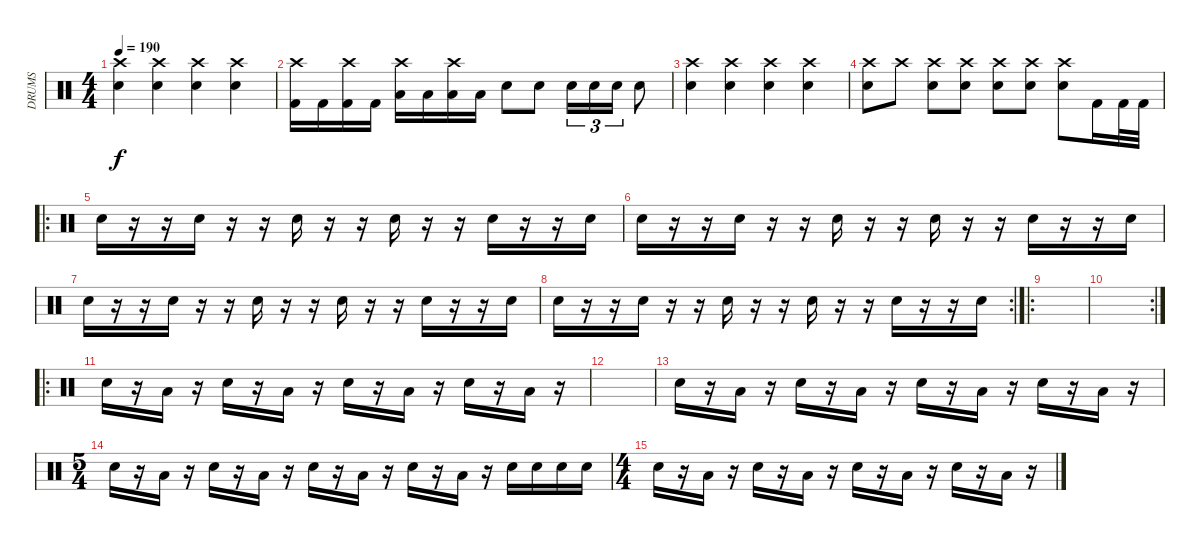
\track ("DRUMS" "DRUMS") {instrument percussion}
\staff {score}
\articulation defaults
\ts (4 4)
\tempo 190
\clef neutral
\ks c
("Crash high (hit)" "Electric Snare (hit)").4{dy f} ("Crash high (hit)" "Snare (hit) 2").4 ("Crash high (hit)" "Electric Snare (hit)").4 ("Crash high (hit)" "Snare (hit) 2").4 |
("Crash high (hit)" "Kick (hit) 2").16 "Kick (hit) 2".16 ("Crash high (hit)" "Kick (hit) 2").16 "Kick (hit) 2".16 ("Crash high (hit)" "Low Tom (hit)").16 "Low Tom (hit)".16 ("Crash high (hit)" "Low Tom (hit)").16 "Low Tom (hit)".16 "Electric Snare (hit)".8 "Electric Snare (hit)".8 "Electric Snare (hit)".16{tu (3 2)} "Electric Snare (hit)".16{tu (3 2)} "Electric Snare (hit)".16{tu (3 2)} "Snare (hit) 2".8 |
("Crash high (hit)" "Electric Snare (hit)").4 ("Crash high (hit)" "Snare (hit) 2").4 ("Crash high (hit)" "Electric Snare (hit)").4 ("Crash high (hit)" "Snare (hit) 2").4 |
("Crash high (hit)" "Electric Snare (hit)").8 "Crash high (hit)".8 ("Crash high (hit)" "Electric Snare (hit)").8 ("Crash high (hit)" "Electric Snare (hit)").8 ("Crash high (hit)" "Electric Snare (hit)").8 ("Crash high (hit)" "Electric Snare (hit)").8 ("Crash high (hit)" "Electric Snare (hit)").8 "Kick (hit) 2".16 "Kick (hit) 2".32 "Kick (hit) 2".32 |
\ro "Electric Snare (hit)".16
r.16 r.16 "Electric Snare (hit)".16 r.16 r.16 "Electric Snare (hit)".16 r.16 r.16 "Electric Snare (hit)".16 r.16 r.16 "Electric Snare (hit)".16 r.16 r.16 "Electric Snare (hit)".16 |
"Electric Snare (hit)".16 r.16 r.16 "Electric Snare (hit)".16 r.16 r.16 "Electric Snare (hit)".16 r.16 r.16 "Electric Snare (hit)".16 r.16 r.16 "Electric Snare (hit)".16 r.16 r.16 "Electric Snare (hit)".16 |
"Electric Snare (hit)".16 r.16 r.16 "Electric Snare (hit)".16 r.16 r.16 "Electric Snare (hit)".16 r.16 r.16 "Electric Snare (hit)".16 r.16 r.16 "Electric Snare (hit)".16 r.16 r.16 "Electric Snare (hit)".16 |
\rc 2 "Electric Snare (hit)".16
r.16 r.16 "Electric Snare (hit)".16 r.16 r.16 "Electric Snare (hit)".16 r.16 r.16 "Electric Snare (hit)".16 r.16 r.16 "Electric Snare (hit)".16 r.16 r.16 "Electric Snare (hit)".16 |
\ro
|
\rc 2
|
\ro "Electric Snare (hit)".16
r.16 "Low Tom (hit)".16 r.16 "Electric Snare (hit)".16 r.16 "Low Tom (hit)".16 r.16 "Electric Snare (hit)".16 r.16 "Low Tom (hit)".16 r.16 "Electric Snare (hit)".16 r.16 "Low Tom (hit)".16 r.16 |
|
"Electric Snare (hit)".16 r.16 "Low Tom (hit)".16 r.16 "Electric Snare (hit)".16 r.16 "Low Tom (hit)".16 r.16 "Electric Snare (hit)".16 r.16 "Low Tom (hit)".16 r.16 "Electric Snare (hit)".16 r.16 "Low Tom (hit)".16 r.16 |
\ts (5 4)
"Electric Snare (hit)".16 r.16 "Low Tom (hit)".16 r.16 "Electric Snare (hit)".16 r.16 "Low Tom (hit)".16 r.16 "Electric Snare (hit)".16 r.16 "Low Tom (hit)".16 r.16 "Electric Snare (hit)".16 r.16 "Low Tom (hit)".16 r.16 "Electric Snare (hit)".16 "Electric Snare (hit)".16 "Electric Snare (hit)".16 "Electric Snare (hit)".16 |
\ts (4 4)
"Electric Snare (hit)".16 r.16 "Low Tom (hit)".16 r.16 "Electric Snare (hit)".16 r.16 "Low Tom (hit)".16 r.16 "Electric Snare (hit)".16 r.16 "Low Tom (hit)".16 r.16 "Electric Snare (hit)".16 r.16 "Low Tom (hit)".16 r.16
